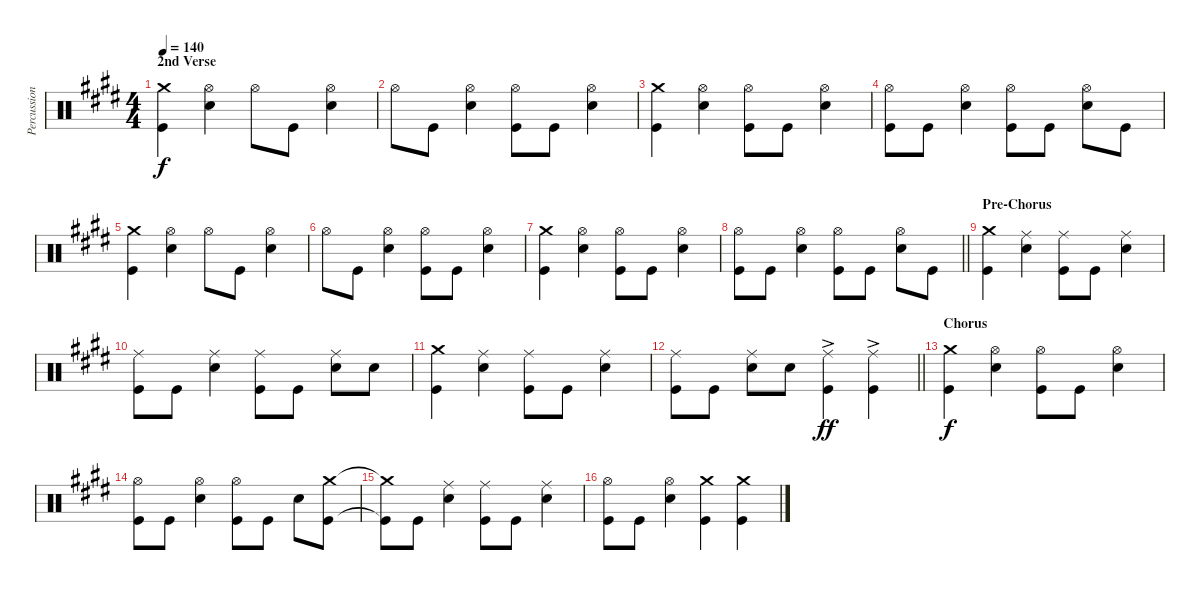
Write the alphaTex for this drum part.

\track ("Percussion" "Percussion") {instrument percussion}
\staff {score}
\articulation defaults
\ts (4 4)
\section ("" "2nd Verse")
\tempo 140
\clef neutral
\ks e
("Crash medium (hit)" "Kick (hit)").4{dy f} ("Hi-Hat (open)" "Snare (hit) 2").4 "Hi-Hat (open)".8 "Kick (hit)".8 ("Hi-Hat (open)" "Snare (hit) 2").4 |
"Hi-Hat (open)".8 "Kick (hit)".8 ("Hi-Hat (open)" "Snare (hit) 2").4 ("Hi-Hat (open)" "Kick (hit)").8 "Kick (hit)".8 ("Hi-Hat (open)" "Snare (hit) 2").4 |
("Crash medium (hit)" "Kick (hit)").4 ("Hi-Hat (open)" "Snare (hit) 2").4 ("Hi-Hat (open)" "Kick (hit)").8 "Kick (hit)".8 ("Hi-Hat (open)" "Snare (hit) 2").4 |
("Hi-Hat (open)" "Kick (hit)").8 "Kick (hit)".8 ("Hi-Hat (open)" "Snare (hit) 2").4 ("Hi-Hat (open)" "Kick (hit)").8 "Kick (hit)".8 ("Hi-Hat (open)" "Snare (hit) 2").8 "Kick (hit)".8 |
("Crash medium (hit)" "Kick (hit)").4 ("Hi-Hat (open)" "Snare (hit) 2").4 "Hi-Hat (open)".8 "Kick (hit)".8 ("Hi-Hat (open)" "Snare (hit) 2").4 |
"Hi-Hat (open)".8 "Kick (hit)".8 ("Hi-Hat (open)" "Snare (hit) 2").4 ("Hi-Hat (open)" "Kick (hit)").8 "Kick (hit)".8 ("Hi-Hat (open)" "Snare (hit) 2").4 |
("Crash medium (hit)" "Kick (hit)").4 ("Hi-Hat (open)" "Snare (hit) 2").4 ("Hi-Hat (open)" "Kick (hit)").8 "Kick (hit)".8 ("Hi-Hat (open)" "Snare (hit) 2").4 |
\barLineRight lightlight
("Hi-Hat (open)" "Kick (hit)").8 "Kick (hit)".8 ("Hi-Hat (open)" "Snare (hit) 2").4 ("Hi-Hat (open)" "Kick (hit)").8 "Kick (hit)".8 ("Hi-Hat (open)" "Snare (hit) 2").8 "Kick (hit)".8 |
\section ("" "Pre-Chorus")
("Crash medium (hit)" "Kick (hit)").4 ("Ride (middle)" "Snare (hit) 2").4 ("Ride (middle)" "Kick (hit)").8 "Kick (hit)".8 ("Ride (middle)" "Snare (hit) 2").4 |
("Ride (middle)" "Kick (hit)").8 "Kick (hit)".8 ("Ride (middle)" "Snare (hit) 2").4 ("Ride (middle)" "Kick (hit)").8 "Kick (hit)".8 ("Ride (middle)" "Snare (hit) 2").8 "Snare (hit) 2".8 |
("Crash medium (hit)" "Kick (hit)").4 ("Ride (middle)" "Snare (hit) 2").4 ("Ride (middle)" "Kick (hit)").8 "Kick (hit)".8 ("Ride (middle)" "Snare (hit) 2").4 |
\barLineRight lightlight
("Ride (middle)" "Kick (hit)").8 "Kick (hit)".8 ("Ride (middle)" "Snare (hit) 2").8 "Snare (hit) 2".8 ("Ride (middle)" "Kick (hit)"{ac}).4{dy ff} ("Ride (middle)" "Kick (hit)"{ac}).4 |
\section ("" "Chorus")
("Crash medium (hit)" "Kick (hit)").4{dy f} ("Hi-Hat (open)" "Snare (hit) 2").4 ("Hi-Hat (open)" "Kick (hit)").8 "Kick (hit)".8 ("Hi-Hat (open)" "Snare (hit) 2").4 |
("Hi-Hat (open)" "Kick (hit)").8 "Kick (hit)".8 ("Hi-Hat (open)" "Snare (hit) 2").4 ("Hi-Hat (open)" "Kick (hit)").8 "Kick (hit)".8 "Snare (hit) 2".8 ("Crash medium (hit)" "Kick (hit)").8 |
("Crash medium (hit)"{t} "Kick (hit)"{t}).8 "Kick (hit)".8 ("Ride (middle)" "Snare (hit) 2").4 ("Ride (middle)" "Kick (hit)").8 "Kick (hit)".8 ("Ride (middle)" "Snare (hit) 2").4 |
("Hi-Hat (open)" "Kick (hit)").8 "Kick (hit)".8 ("Hi-Hat (open)" "Snare (hit) 2").4 ("Crash medium (hit)" "Kick (hit)").4 ("Crash medium (hit)" "Kick (hit)").4
